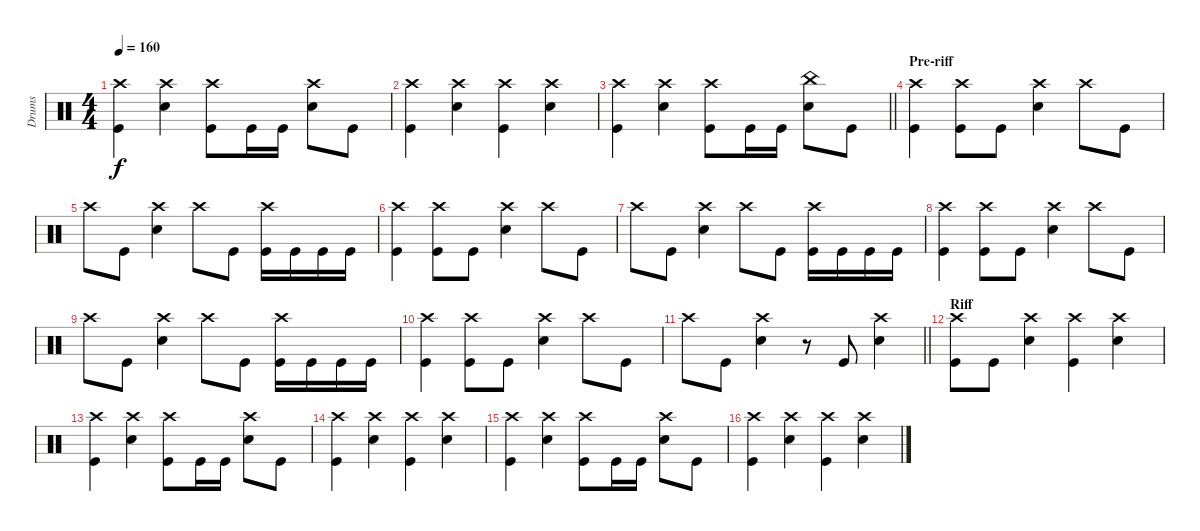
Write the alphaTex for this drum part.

\track ("Drums" "Drums") {instrument percussion}
\staff {score}
\articulation defaults
\ts (4 4)
\tempo 160
\clef neutral
\ks c
("Kick (hit)" "Crash high (hit)").4{dy f} ("Snare (hit) 2" "Crash high (hit)").4 ("Kick (hit)" "Crash high (hit)").8 "Kick (hit)".16 "Kick (hit)".16 ("Snare (hit) 2" "Crash high (hit)").8 "Kick (hit)".8 |
("Kick (hit)" "Crash high (hit)").4 ("Snare (hit) 2" "Crash high (hit)").4 ("Kick (hit)" "Crash high (hit)").4 ("Snare (hit) 2" "Crash high (hit)").4 |
\barLineRight lightlight
("Kick (hit)" "Crash high (hit)").4 ("Snare (hit) 2" "Crash high (hit)").4 ("Kick (hit)" "Crash high (hit)").8 "Kick (hit)".16 "Kick (hit)".16 ("Snare (hit) 2" "China (hit)").8 "Kick (hit)".8 |
\section ("" "Pre-riff")
("Kick (hit)" "Crash high (hit)").4 ("Kick (hit)" "Crash high (hit)").8 "Kick (hit)".8 ("Crash high (hit)" "Snare (hit) 2").4 "Crash high (hit)".8 "Kick (hit)".8 |
"Crash high (hit)".8 "Kick (hit)".8 ("Snare (hit) 2" "Crash high (hit)").4 "Crash high (hit)".8 "Kick (hit)".8 ("Kick (hit)" "Crash high (hit)").16 "Kick (hit)".16 "Kick (hit)".16 "Kick (hit)".16 |
("Kick (hit)" "Crash high (hit)").4 ("Kick (hit)" "Crash high (hit)").8 "Kick (hit)".8 ("Crash high (hit)" "Snare (hit) 2").4 "Crash high (hit)".8 "Kick (hit)".8 |
"Crash high (hit)".8 "Kick (hit)".8 ("Snare (hit) 2" "Crash high (hit)").4 "Crash high (hit)".8 "Kick (hit)".8 ("Kick (hit)" "Crash high (hit)").16 "Kick (hit)".16 "Kick (hit)".16 "Kick (hit)".16 |
("Kick (hit)" "Crash high (hit)").4 ("Kick (hit)" "Crash high (hit)").8 "Kick (hit)".8 ("Crash high (hit)" "Snare (hit) 2").4 "Crash high (hit)".8 "Kick (hit)".8 |
"Crash high (hit)".8 "Kick (hit)".8 ("Snare (hit) 2" "Crash high (hit)").4 "Crash high (hit)".8 "Kick (hit)".8 ("Kick (hit)" "Crash high (hit)").16 "Kick (hit)".16 "Kick (hit)".16 "Kick (hit)".16 |
("Kick (hit)" "Crash high (hit)").4 ("Kick (hit)" "Crash high (hit)").8 "Kick (hit)".8 ("Crash high (hit)" "Snare (hit) 2").4 "Crash high (hit)".8 "Kick (hit)".8 |
\barLineRight lightlight "Crash high (hit)".8 "Kick (hit)".8
("Snare (hit) 2" "Crash high (hit)").4 r.8 "Kick (hit)".8 ("Snare (hit) 2" "Crash high (hit)").4 |
\section ("" "Riff")
("Kick (hit)" "Crash high (hit)").8 "Kick (hit)".8 ("Snare (hit) 2" "Crash high (hit)").4 ("Kick (hit)" "Crash high (hit)").4 ("Snare (hit) 2" "Crash high (hit)").4 |
("Kick (hit)" "Crash high (hit)").4 ("Snare (hit) 2" "Crash high (hit)").4 ("Kick (hit)" "Crash high (hit)").8 "Kick (hit)".16 "Kick (hit)".16 ("Snare (hit) 2" "Crash high (hit)").8 "Kick (hit)".8 |
("Kick (hit)" "Crash high (hit)").4 ("Snare (hit) 2" "Crash high (hit)").4 ("Kick (hit)" "Crash high (hit)").4 ("Snare (hit) 2" "Crash high (hit)").4 |
("Kick (hit)" "Crash high (hit)").4 ("Snare (hit) 2" "Crash high (hit)").4 ("Kick (hit)" "Crash high (hit)").8 "Kick (hit)".16 "Kick (hit)".16 ("Snare (hit) 2" "Crash high (hit)").8 "Kick (hit)".8 |
("Kick (hit)" "Crash high (hit)").4 ("Snare (hit) 2" "Crash high (hit)").4 ("Kick (hit)" "Crash high (hit)").4 ("Snare (hit) 2" "Crash high (hit)").4
